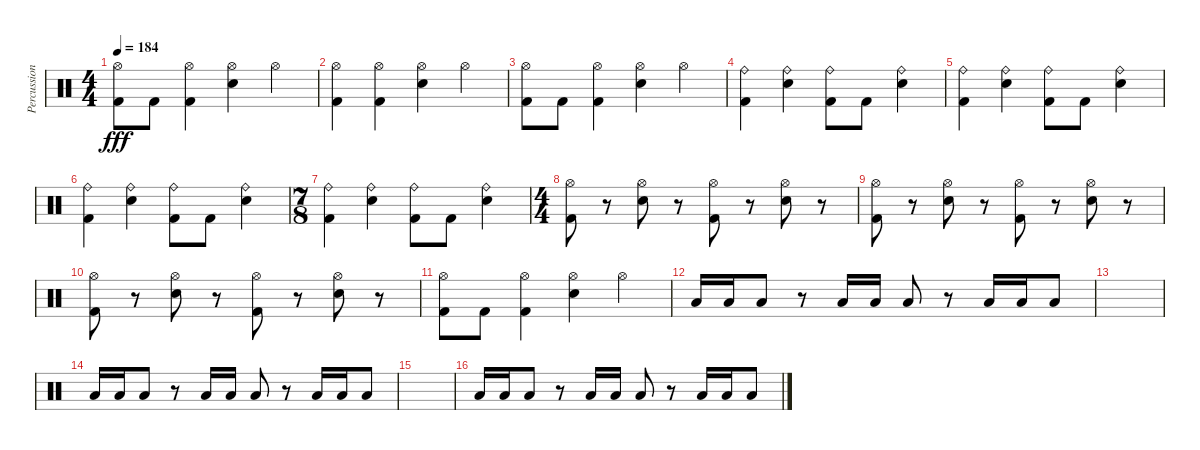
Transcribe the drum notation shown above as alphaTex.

\track ("Percussion" "Percussion") {instrument percussion}
\staff {score}
\articulation defaults
\ts (4 4)
\tempo 184
\clef neutral
\ks c
("Hi-Hat (open)" "Kick (hit) 2").8{dy fff} "Kick (hit) 2".8 ("Hi-Hat (open)" "Kick (hit) 2").4 ("Hi-Hat (open)" "Snare (hit) 2").4 "Hi-Hat (open)".4 |
("Hi-Hat (open)" "Kick (hit) 2").4 ("Hi-Hat (open)" "Kick (hit) 2").4 ("Hi-Hat (open)" "Snare (hit) 2").4 "Hi-Hat (open)".4 |
("Hi-Hat (open)" "Kick (hit) 2").8 "Kick (hit) 2".8 ("Hi-Hat (open)" "Kick (hit) 2").4 ("Hi-Hat (open)" "Snare (hit) 2").4 "Hi-Hat (open)".4 |
("Ride (bell)" "Kick (hit) 2").4 ("Ride (bell)" "Snare (hit) 2").4 ("Ride (bell)" "Kick (hit) 2").8 "Kick (hit) 2".8 ("Ride (bell)" "Snare (hit) 2").4 |
("Ride (bell)" "Kick (hit) 2").4 ("Ride (bell)" "Snare (hit) 2").4 ("Ride (bell)" "Kick (hit) 2").8 "Kick (hit) 2".8 ("Ride (bell)" "Snare (hit) 2").4 |
("Ride (bell)" "Kick (hit) 2").4 ("Ride (bell)" "Snare (hit) 2").4 ("Ride (bell)" "Kick (hit) 2").8 "Kick (hit) 2".8 ("Ride (bell)" "Snare (hit) 2").4 |
\ts (7 8)
("Ride (bell)" "Kick (hit) 2").4 ("Ride (bell)" "Snare (hit) 2").4 ("Ride (bell)" "Kick (hit) 2").8 "Kick (hit) 2".8 ("Ride (bell)" "Snare (hit) 2").4 |
\ts (4 4)
("Hi-Hat (open)" "Kick (hit) 2").8 r.8 ("Hi-Hat (open)" "Snare (hit) 2").8 r.8 ("Hi-Hat (open)" "Kick (hit) 2").8 r.8 ("Hi-Hat (open)" "Snare (hit) 2").8 r.8 |
("Hi-Hat (open)" "Kick (hit) 2").8 r.8 ("Hi-Hat (open)" "Snare (hit) 2").8 r.8 ("Hi-Hat (open)" "Kick (hit) 2").8 r.8 ("Hi-Hat (open)" "Snare (hit) 2").8 r.8 |
("Hi-Hat (open)" "Kick (hit) 2").8 r.8 ("Hi-Hat (open)" "Snare (hit) 2").8 r.8 ("Hi-Hat (open)" "Kick (hit) 2").8 r.8 ("Hi-Hat (open)" "Snare (hit) 2").8 r.8 |
("Hi-Hat (open)" "Kick (hit) 2").8 "Kick (hit) 2".8 ("Hi-Hat (open)" "Kick (hit) 2").4 ("Hi-Hat (open)" "Snare (hit) 2").4 "Hi-Hat (open)".4 |
"Low Floor Tom (hit)".16 "Low Floor Tom (hit)".16 "Low Floor Tom (hit)".8 r.8 "Low Floor Tom (hit)".16 "Low Floor Tom (hit)".16 "Low Floor Tom (hit)".8 r.8 "Low Floor Tom (hit)".16 "Low Floor Tom (hit)".16 "Low Floor Tom (hit)".8 |
|
"Low Floor Tom (hit)".16 "Low Floor Tom (hit)".16 "Low Floor Tom (hit)".8 r.8 "Low Floor Tom (hit)".16 "Low Floor Tom (hit)".16 "Low Floor Tom (hit)".8 r.8 "Low Floor Tom (hit)".16 "Low Floor Tom (hit)".16 "Low Floor Tom (hit)".8 |
|
"Low Floor Tom (hit)".16 "Low Floor Tom (hit)".16 "Low Floor Tom (hit)".8 r.8 "Low Floor Tom (hit)".16 "Low Floor Tom (hit)".16 "Low Floor Tom (hit)".8 r.8 "Low Floor Tom (hit)".16 "Low Floor Tom (hit)".16 "Low Floor Tom (hit)".8
